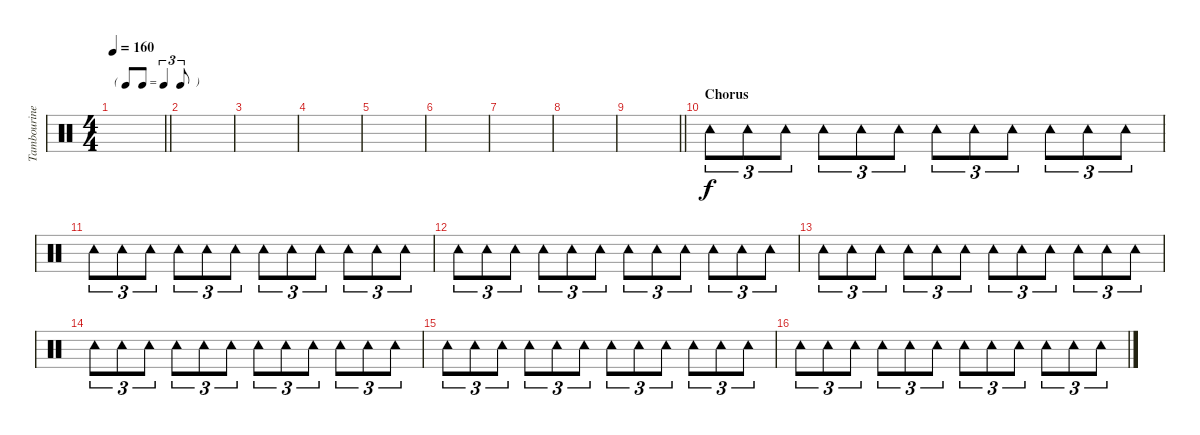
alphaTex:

\track ("Tambourine" "Tambourine") {instrument percussion}
\staff {score}
\articulation defaults
\ts (4 4)
\tf triplet8th
\tempo 160
\clef neutral
\barLineRight lightlight
\ks c
|
|
|
|
|
|
|
|
\barLineRight lightlight
|
\section ("" "Chorus")
"Tambourine (hit)".8{tu (3 2)} "Tambourine (hit)".8{tu (3 2)} "Tambourine (hit)".8{tu (3 2)} "Tambourine (hit)".8{tu (3 2)} "Tambourine (hit)".8{tu (3 2)} "Tambourine (hit)".8{tu (3 2)} "Tambourine (hit)".8{tu (3 2)} "Tambourine (hit)".8{tu (3 2)} "Tambourine (hit)".8{tu (3 2)} "Tambourine (hit)".8{tu (3 2)} "Tambourine (hit)".8{tu (3 2)} "Tambourine (hit)".8{tu (3 2)} |
"Tambourine (hit)".8{tu (3 2)} "Tambourine (hit)".8{tu (3 2)} "Tambourine (hit)".8{tu (3 2)} "Tambourine (hit)".8{tu (3 2)} "Tambourine (hit)".8{tu (3 2)} "Tambourine (hit)".8{tu (3 2)} "Tambourine (hit)".8{tu (3 2)} "Tambourine (hit)".8{tu (3 2)} "Tambourine (hit)".8{tu (3 2)} "Tambourine (hit)".8{tu (3 2)} "Tambourine (hit)".8{tu (3 2)} "Tambourine (hit)".8{tu (3 2)} |
"Tambourine (hit)".8{tu (3 2)} "Tambourine (hit)".8{tu (3 2)} "Tambourine (hit)".8{tu (3 2)} "Tambourine (hit)".8{tu (3 2)} "Tambourine (hit)".8{tu (3 2)} "Tambourine (hit)".8{tu (3 2)} "Tambourine (hit)".8{tu (3 2)} "Tambourine (hit)".8{tu (3 2)} "Tambourine (hit)".8{tu (3 2)} "Tambourine (hit)".8{tu (3 2)} "Tambourine (hit)".8{tu (3 2)} "Tambourine (hit)".8{tu (3 2)} |
"Tambourine (hit)".8{tu (3 2)} "Tambourine (hit)".8{tu (3 2)} "Tambourine (hit)".8{tu (3 2)} "Tambourine (hit)".8{tu (3 2)} "Tambourine (hit)".8{tu (3 2)} "Tambourine (hit)".8{tu (3 2)} "Tambourine (hit)".8{tu (3 2)} "Tambourine (hit)".8{tu (3 2)} "Tambourine (hit)".8{tu (3 2)} "Tambourine (hit)".8{tu (3 2)} "Tambourine (hit)".8{tu (3 2)} "Tambourine (hit)".8{tu (3 2)} |
"Tambourine (hit)".8{tu (3 2)} "Tambourine (hit)".8{tu (3 2)} "Tambourine (hit)".8{tu (3 2)} "Tambourine (hit)".8{tu (3 2)} "Tambourine (hit)".8{tu (3 2)} "Tambourine (hit)".8{tu (3 2)} "Tambourine (hit)".8{tu (3 2)} "Tambourine (hit)".8{tu (3 2)} "Tambourine (hit)".8{tu (3 2)} "Tambourine (hit)".8{tu (3 2)} "Tambourine (hit)".8{tu (3 2)} "Tambourine (hit)".8{tu (3 2)} |
"Tambourine (hit)".8{tu (3 2)} "Tambourine (hit)".8{tu (3 2)} "Tambourine (hit)".8{tu (3 2)} "Tambourine (hit)".8{tu (3 2)} "Tambourine (hit)".8{tu (3 2)} "Tambourine (hit)".8{tu (3 2)} "Tambourine (hit)".8{tu (3 2)} "Tambourine (hit)".8{tu (3 2)} "Tambourine (hit)".8{tu (3 2)} "Tambourine (hit)".8{tu (3 2)} "Tambourine (hit)".8{tu (3 2)} "Tambourine (hit)".8{tu (3 2)} |
"Tambourine (hit)".8{tu (3 2)} "Tambourine (hit)".8{tu (3 2)} "Tambourine (hit)".8{tu (3 2)} "Tambourine (hit)".8{tu (3 2)} "Tambourine (hit)".8{tu (3 2)} "Tambourine (hit)".8{tu (3 2)} "Tambourine (hit)".8{tu (3 2)} "Tambourine (hit)".8{tu (3 2)} "Tambourine (hit)".8{tu (3 2)} "Tambourine (hit)".8{tu (3 2)} "Tambourine (hit)".8{tu (3 2)} "Tambourine (hit)".8{tu (3 2)}
